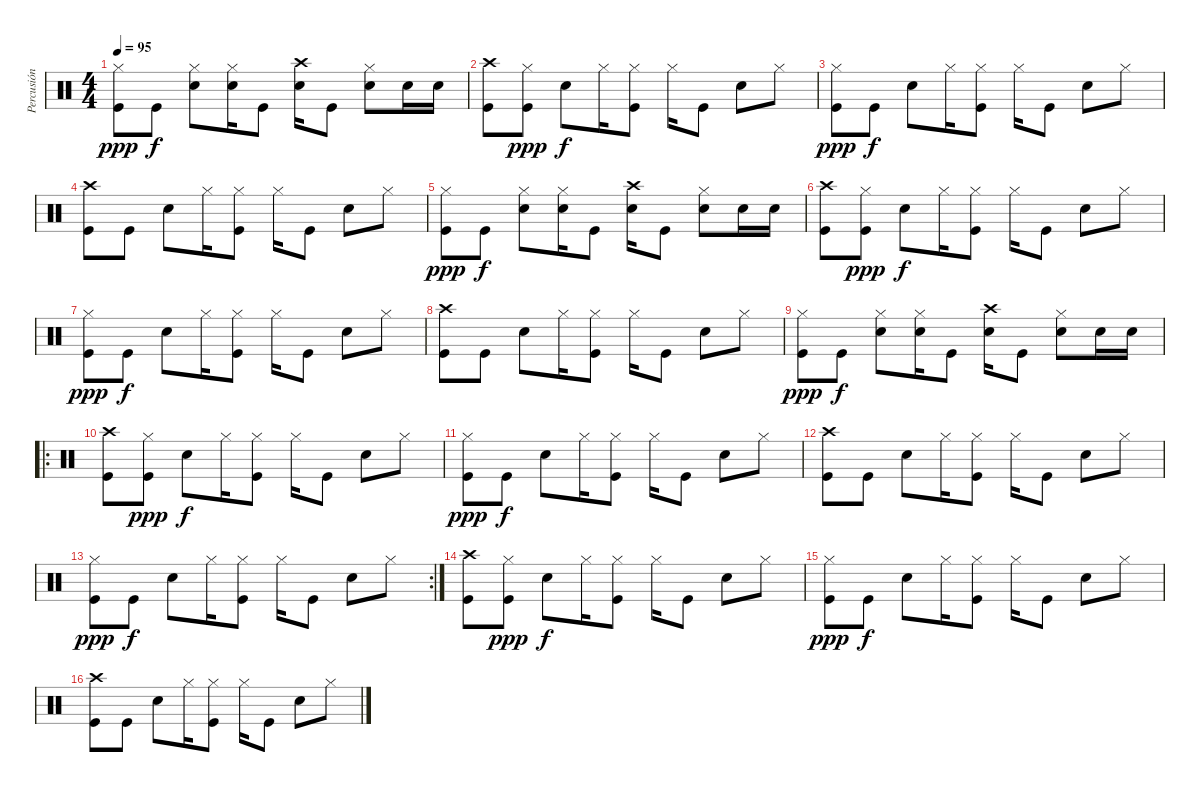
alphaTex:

\track ("Percusión" "Percusión") {instrument percussion}
\staff {score}
\articulation defaults
\ts (4 4)
\tempo 95
\clef neutral
\ks c
("Kick (hit)" "Hi-Hat (closed)").8{dy ppp} "Kick (hit)".8{dy f} ("Snare (hit) 2" "Hi-Hat (closed)").8 ("Snare (hit) 2" "Hi-Hat (closed)").16 "Kick (hit)".8 ("Snare (hit) 2" "Crash high (hit)").16 "Kick (hit)".8 ("Snare (hit) 2" "Hi-Hat (closed)").8 "Snare (hit) 2".16 "Snare (hit) 2".16 |
("Kick (hit)" "Crash high (hit)").8 ("Kick (hit)" "Hi-Hat (closed)").8{dy ppp} "Snare (hit) 2".8{dy f} "Hi-Hat (closed)".16 ("Kick (hit)" "Hi-Hat (closed)").8 "Hi-Hat (closed)".16 "Kick (hit)".8 "Snare (hit) 2".8 "Hi-Hat (closed)".8 |
("Kick (hit)" "Hi-Hat (closed)").8{dy ppp} "Kick (hit)".8{dy f} "Snare (hit) 2".8 "Hi-Hat (closed)".16 ("Kick (hit)" "Hi-Hat (closed)").8 "Hi-Hat (closed)".16 "Kick (hit)".8 "Snare (hit) 2".8 "Hi-Hat (closed)".8 |
("Kick (hit)" "Crash high (hit)").8 "Kick (hit)".8 "Snare (hit) 2".8 "Hi-Hat (closed)".16 ("Kick (hit)" "Hi-Hat (closed)").8 "Hi-Hat (closed)".16 "Kick (hit)".8 "Snare (hit) 2".8 "Hi-Hat (closed)".8 |
("Kick (hit)" "Hi-Hat (closed)").8{dy ppp} "Kick (hit)".8{dy f} ("Snare (hit) 2" "Hi-Hat (closed)").8 ("Snare (hit) 2" "Hi-Hat (closed)").16 "Kick (hit)".8 ("Snare (hit) 2" "Crash high (hit)").16 "Kick (hit)".8 ("Snare (hit) 2" "Hi-Hat (closed)").8 "Snare (hit) 2".16 "Snare (hit) 2".16 |
("Kick (hit)" "Crash high (hit)").8 ("Kick (hit)" "Hi-Hat (closed)").8{dy ppp} "Snare (hit) 2".8{dy f} "Hi-Hat (closed)".16 ("Kick (hit)" "Hi-Hat (closed)").8 "Hi-Hat (closed)".16 "Kick (hit)".8 "Snare (hit) 2".8 "Hi-Hat (closed)".8 |
("Kick (hit)" "Hi-Hat (closed)").8{dy ppp} "Kick (hit)".8{dy f} "Snare (hit) 2".8 "Hi-Hat (closed)".16 ("Kick (hit)" "Hi-Hat (closed)").8 "Hi-Hat (closed)".16 "Kick (hit)".8 "Snare (hit) 2".8 "Hi-Hat (closed)".8 |
("Kick (hit)" "Crash high (hit)").8 "Kick (hit)".8 "Snare (hit) 2".8 "Hi-Hat (closed)".16 ("Kick (hit)" "Hi-Hat (closed)").8 "Hi-Hat (closed)".16 "Kick (hit)".8 "Snare (hit) 2".8 "Hi-Hat (closed)".8 |
("Kick (hit)" "Hi-Hat (closed)").8{dy ppp} "Kick (hit)".8{dy f} ("Snare (hit) 2" "Hi-Hat (closed)").8 ("Snare (hit) 2" "Hi-Hat (closed)").16 "Kick (hit)".8 ("Snare (hit) 2" "Crash high (hit)").16 "Kick (hit)".8 ("Snare (hit) 2" "Hi-Hat (closed)").8 "Snare (hit) 2".16 "Snare (hit) 2".16 |
\ro
("Kick (hit)" "Crash high (hit)").8 ("Kick (hit)" "Hi-Hat (closed)").8{dy ppp} "Snare (hit) 2".8{dy f} "Hi-Hat (closed)".16 ("Kick (hit)" "Hi-Hat (closed)").8 "Hi-Hat (closed)".16 "Kick (hit)".8 "Snare (hit) 2".8 "Hi-Hat (closed)".8 |
("Kick (hit)" "Hi-Hat (closed)").8{dy ppp} "Kick (hit)".8{dy f} "Snare (hit) 2".8 "Hi-Hat (closed)".16 ("Kick (hit)" "Hi-Hat (closed)").8 "Hi-Hat (closed)".16 "Kick (hit)".8 "Snare (hit) 2".8 "Hi-Hat (closed)".8 |
("Kick (hit)" "Crash high (hit)").8 "Kick (hit)".8 "Snare (hit) 2".8 "Hi-Hat (closed)".16 ("Kick (hit)" "Hi-Hat (closed)").8 "Hi-Hat (closed)".16 "Kick (hit)".8 "Snare (hit) 2".8 "Hi-Hat (closed)".8 |
\rc 2
("Kick (hit)" "Hi-Hat (closed)").8{dy ppp} "Kick (hit)".8{dy f} "Snare (hit) 2".8 "Hi-Hat (closed)".16 ("Kick (hit)" "Hi-Hat (closed)").8 "Hi-Hat (closed)".16 "Kick (hit)".8 "Snare (hit) 2".8 "Hi-Hat (closed)".8 |
("Kick (hit)" "Crash high (hit)").8 ("Kick (hit)" "Hi-Hat (closed)").8{dy ppp} "Snare (hit) 2".8{dy f} "Hi-Hat (closed)".16 ("Kick (hit)" "Hi-Hat (closed)").8 "Hi-Hat (closed)".16 "Kick (hit)".8 "Snare (hit) 2".8 "Hi-Hat (closed)".8 |
("Kick (hit)" "Hi-Hat (closed)").8{dy ppp} "Kick (hit)".8{dy f} "Snare (hit) 2".8 "Hi-Hat (closed)".16 ("Kick (hit)" "Hi-Hat (closed)").8 "Hi-Hat (closed)".16 "Kick (hit)".8 "Snare (hit) 2".8 "Hi-Hat (closed)".8 |
("Kick (hit)" "Crash high (hit)").8 "Kick (hit)".8 "Snare (hit) 2".8 "Hi-Hat (closed)".16 ("Kick (hit)" "Hi-Hat (closed)").8 "Hi-Hat (closed)".16 "Kick (hit)".8 "Snare (hit) 2".8 "Hi-Hat (closed)".8
